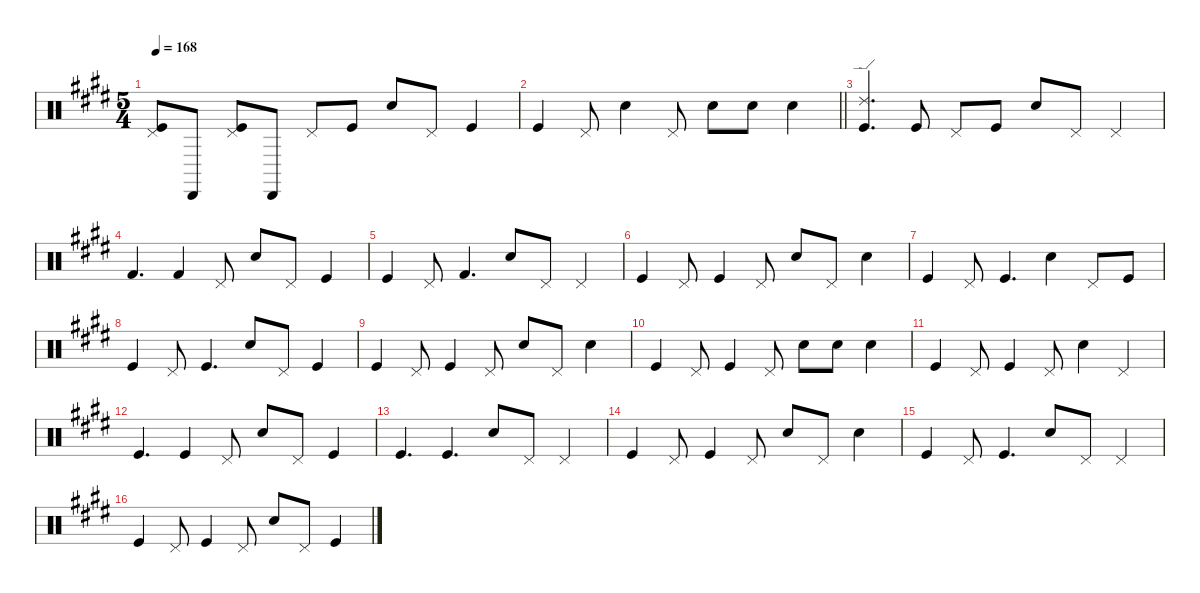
\defaultSystemsLayout 4
\hideDynamics
\bracketExtendMode nobrackets
\singleTrackTrackNamePolicy hidden
\multiTrackTrackNamePolicy hidden
\firstSystemTrackNameMode fullname
\firstSystemTrackNameOrientation horizontal
\otherSystemsTrackNameOrientation horizontal
\track ("Percussion" "drm.") {instrument percussion}
\staff {score}
\articulation defaults
\ts (5 4)
\tempo 168
\clef neutral
\ks c#minor
("Kick (hit)"{acc forcenatural} "Pedal Hi-Hat (hit)"{acc forcenatural}).8{dy f beam Up} "Cabasa (hit)"{acc forcenatural}.8{dy pp beam Up} ("Kick (hit)"{acc forcenatural} "Pedal Hi-Hat (hit)"{acc forcenatural}).8{dy f beam Up} "Cabasa (hit)"{acc forcenatural}.8{dy pp beam Up} "Pedal Hi-Hat (hit)"{acc forcenatural}.8{dy f beam Up} "Kick (hit)"{acc forcenatural}.8{beam Up} "Snare (hit) 2"{acc forcenatural}.8{beam Up} "Pedal Hi-Hat (hit)"{acc forcenatural}.8{beam Up} "Kick (hit)"{acc forcenatural}.4{beam Up} |
\barLineRight lightlight "Kick (hit)"{acc forcenatural}.4{beam Up} "Pedal Hi-Hat (hit)"{acc forcenatural}.8{beam Up} "Snare (hit) 2"{acc forcenatural}.4{beam Down} "Pedal Hi-Hat (hit)"{acc forcenatural}.8{beam Up} "Snare (hit) 2"{acc forcenatural}.8{beam Down} "Snare (hit) 2"{acc forcenatural}.8{beam Down} "Snare (hit) 2"{acc forcenatural}.4{beam Down}
|
("Kick (hit)"{acc forcenatural} "Ride (edge) 2"{acc forcenatural}).4{d beam Up} "Kick (hit)"{acc forcenatural}.8{beam Up} "Pedal Hi-Hat (hit)"{acc forcenatural}.8{beam Up} "Kick (hit)"{acc forcenatural}.8{beam Up} "Snare (hit) 2"{acc forcenatural}.8{beam Up} "Pedal Hi-Hat (hit)"{acc forcenatural}.8{beam Up} "Pedal Hi-Hat (hit)"{acc forcenatural}.4{beam Up} |
"Kick (hit) 2"{acc forcenatural}.4{d beam Up} "Kick (hit) 2"{acc forcenatural}.4{beam Up} "Pedal Hi-Hat (hit)"{acc forcenatural}.8{beam Up} "Snare (hit) 2"{acc forcenatural}.8{beam Up} "Pedal Hi-Hat (hit)"{acc forcenatural}.8{beam Up} "Kick (hit)"{acc forcenatural}.4{beam Up} |
"Kick (hit)"{acc forcenatural}.4{beam Up} "Pedal Hi-Hat (hit)"{acc forcenatural}.8{beam Up} "Kick (hit) 2"{acc forcenatural}.4{d beam Up} "Snare (hit) 2"{acc forcenatural}.8{beam Up} "Pedal Hi-Hat (hit)"{acc forcenatural}.8{beam Up} "Pedal Hi-Hat (hit)"{acc forcenatural}.4{beam Up} |
"Kick (hit)"{acc forcenatural}.4{beam Up} "Pedal Hi-Hat (hit)"{acc forcenatural}.8{beam Up} "Kick (hit)"{acc forcenatural}.4{beam Up} "Pedal Hi-Hat (hit)"{acc forcenatural}.8{beam Up} "Snare (hit) 2"{acc forcenatural}.8{beam Up} "Pedal Hi-Hat (hit)"{acc forcenatural}.8{beam Up} "Snare (hit) 2"{acc forcenatural}.4{beam Down} |
"Kick (hit)"{acc forcenatural}.4{beam Up} "Pedal Hi-Hat (hit)"{acc forcenatural}.8{beam Up} "Kick (hit)"{acc forcenatural}.4{d beam Up} "Snare (hit) 2"{acc forcenatural}.4{beam Down} "Pedal Hi-Hat (hit)"{acc forcenatural}.8{beam Up} "Kick (hit)"{acc forcenatural}.8{beam Up} |
"Kick (hit)"{acc forcenatural}.4{beam Up} "Pedal Hi-Hat (hit)"{acc forcenatural}.8{beam Up} "Kick (hit)"{acc forcenatural}.4{d beam Up} "Snare (hit) 2"{acc forcenatural}.8{beam Up} "Pedal Hi-Hat (hit)"{acc forcenatural}.8{beam Up} "Kick (hit)"{acc forcenatural}.4{beam Up} |
"Kick (hit)"{acc forcenatural}.4{beam Up} "Pedal Hi-Hat (hit)"{acc forcenatural}.8{beam Up} "Kick (hit)"{acc forcenatural}.4{beam Up} "Pedal Hi-Hat (hit)"{acc forcenatural}.8{beam Up} "Snare (hit) 2"{acc forcenatural}.8{beam Up} "Pedal Hi-Hat (hit)"{acc forcenatural}.8{beam Up} "Snare (hit) 2"{acc forcenatural}.4{beam Down} |
"Kick (hit)"{acc forcenatural}.4{beam Up} "Pedal Hi-Hat (hit)"{acc forcenatural}.8{beam Up} "Kick (hit)"{acc forcenatural}.4{beam Up} "Pedal Hi-Hat (hit)"{acc forcenatural}.8{beam Up} "Snare (hit) 2"{acc forcenatural}.8{beam Down} "Snare (hit) 2"{acc forcenatural}.8{beam Down} "Snare (hit) 2"{acc forcenatural}.4{beam Down} |
"Kick (hit)"{acc forcenatural}.4{beam Up} "Pedal Hi-Hat (hit)"{acc forcenatural}.8{beam Up} "Kick (hit)"{acc forcenatural}.4{beam Up} "Pedal Hi-Hat (hit)"{acc forcenatural}.8{beam Up} "Snare (hit) 2"{acc forcenatural}.4{beam Down} "Pedal Hi-Hat (hit)"{acc forcenatural}.4{beam Up} |
"Kick (hit)"{acc forcenatural}.4{d beam Up} "Kick (hit)"{acc forcenatural}.4{beam Up} "Pedal Hi-Hat (hit)"{acc forcenatural}.8{beam Up} "Snare (hit) 2"{acc forcenatural}.8{beam Up} "Pedal Hi-Hat (hit)"{acc forcenatural}.8{beam Up} "Kick (hit)"{acc forcenatural}.4{beam Up} |
"Kick (hit)"{acc forcenatural}.4{d beam Up} "Kick (hit)"{acc forcenatural}.4{d beam Up} "Snare (hit) 2"{acc forcenatural}.8{beam Up} "Pedal Hi-Hat (hit)"{acc forcenatural}.8{beam Up} "Pedal Hi-Hat (hit)"{acc forcenatural}.4{beam Up} |
"Kick (hit)"{acc forcenatural}.4{beam Up} "Pedal Hi-Hat (hit)"{acc forcenatural}.8{beam Up} "Kick (hit)"{acc forcenatural}.4{beam Up} "Pedal Hi-Hat (hit)"{acc forcenatural}.8{beam Up} "Snare (hit) 2"{acc forcenatural}.8{beam Up} "Pedal Hi-Hat (hit)"{acc forcenatural}.8{beam Up} "Snare (hit) 2"{acc forcenatural}.4{beam Down} |
"Kick (hit)"{acc forcenatural}.4{beam Up} "Pedal Hi-Hat (hit)"{acc forcenatural}.8{beam Up} "Kick (hit)"{acc forcenatural}.4{d beam Up} "Snare (hit) 2"{acc forcenatural}.8{beam Up} "Pedal Hi-Hat (hit)"{acc forcenatural}.8{beam Up} "Pedal Hi-Hat (hit)"{acc forcenatural}.4{beam Up} |
"Kick (hit)"{acc forcenatural}.4{beam Up} "Pedal Hi-Hat (hit)"{acc forcenatural}.8{beam Up} "Kick (hit)"{acc forcenatural}.4{beam Up} "Pedal Hi-Hat (hit)"{acc forcenatural}.8{beam Up} "Snare (hit) 2"{acc forcenatural}.8{beam Up} "Pedal Hi-Hat (hit)"{acc forcenatural}.8{beam Up} "Kick (hit)"{acc forcenatural}.4{beam Up}
